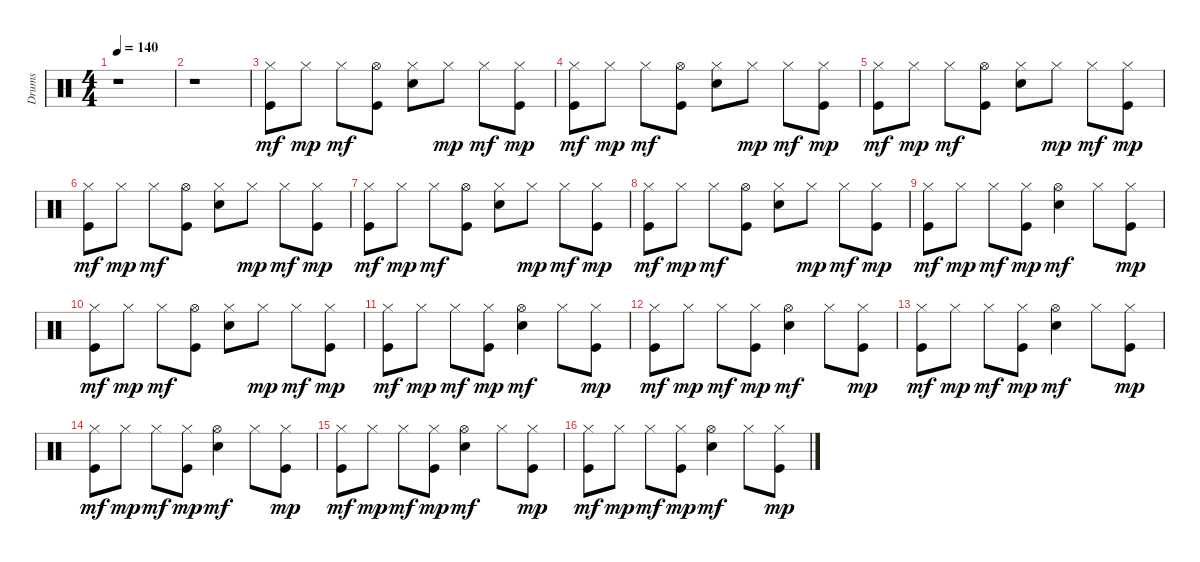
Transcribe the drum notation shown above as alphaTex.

\track ("Drums" "Drums") {instrument percussion}
\staff {score}
\articulation defaults
\ts (4 4)
\tempo 140
\clef neutral
\ks c
r.1{dy mf} |
r.1 |
("Hi-Hat (closed)" "Kick (hit)").8 "Hi-Hat (closed)".8{dy mp} "Hi-Hat (closed)".8{dy mf} ("Hi-Hat (open)" "Kick (hit)").8 ("Hi-Hat (closed)" "Electric Snare (hit)").8 "Hi-Hat (closed)".8{dy mp} "Hi-Hat (closed)".8{dy mf} ("Hi-Hat (closed)" "Kick (hit)").8{dy mp} |
("Kick (hit)" "Hi-Hat (closed)").8{dy mf} "Hi-Hat (closed)".8{dy mp} "Hi-Hat (closed)".8{dy mf} ("Kick (hit)" "Hi-Hat (open)").8 ("Electric Snare (hit)" "Hi-Hat (closed)").8 "Hi-Hat (closed)".8{dy mp} "Hi-Hat (closed)".8{dy mf} ("Kick (hit)" "Hi-Hat (closed)").8{dy mp} |
("Kick (hit)" "Hi-Hat (closed)").8{dy mf} "Hi-Hat (closed)".8{dy mp} "Hi-Hat (closed)".8{dy mf} ("Kick (hit)" "Hi-Hat (open)").8 ("Electric Snare (hit)" "Hi-Hat (closed)").8 "Hi-Hat (closed)".8{dy mp} "Hi-Hat (closed)".8{dy mf} ("Kick (hit)" "Hi-Hat (closed)").8{dy mp} |
("Kick (hit)" "Hi-Hat (closed)").8{dy mf} "Hi-Hat (closed)".8{dy mp} "Hi-Hat (closed)".8{dy mf} ("Kick (hit)" "Hi-Hat (open)").8 ("Electric Snare (hit)" "Hi-Hat (closed)").8 "Hi-Hat (closed)".8{dy mp} "Hi-Hat (closed)".8{dy mf} ("Kick (hit)" "Hi-Hat (closed)").8{dy mp} |
("Kick (hit)" "Hi-Hat (closed)").8{dy mf} "Hi-Hat (closed)".8{dy mp} "Hi-Hat (closed)".8{dy mf} ("Kick (hit)" "Hi-Hat (open)").8 ("Electric Snare (hit)" "Hi-Hat (closed)").8 "Hi-Hat (closed)".8{dy mp} "Hi-Hat (closed)".8{dy mf} ("Kick (hit)" "Hi-Hat (closed)").8{dy mp} |
("Kick (hit)" "Hi-Hat (closed)").8{dy mf} "Hi-Hat (closed)".8{dy mp} "Hi-Hat (closed)".8{dy mf} ("Kick (hit)" "Hi-Hat (open)").8 ("Electric Snare (hit)" "Hi-Hat (closed)").8 "Hi-Hat (closed)".8{dy mp} "Hi-Hat (closed)".8{dy mf} ("Kick (hit)" "Hi-Hat (closed)").8{dy mp} |
("Kick (hit)" "Hi-Hat (closed)").8{dy mf} "Hi-Hat (closed)".8{dy mp} "Hi-Hat (closed)".8{dy mf} ("Kick (hit)" "Hi-Hat (closed)").8{dy mp} ("Electric Snare (hit)" "Hi-Hat (open)").4{dy mf} "Hi-Hat (closed)".8 ("Kick (hit)" "Hi-Hat (closed)").8{dy mp} |
("Kick (hit)" "Hi-Hat (closed)").8{dy mf} "Hi-Hat (closed)".8{dy mp} "Hi-Hat (closed)".8{dy mf} ("Kick (hit)" "Hi-Hat (open)").8 ("Electric Snare (hit)" "Hi-Hat (closed)").8 "Hi-Hat (closed)".8{dy mp} "Hi-Hat (closed)".8{dy mf} ("Kick (hit)" "Hi-Hat (closed)").8{dy mp} |
("Hi-Hat (closed)" "Kick (hit)").8{dy mf} "Hi-Hat (closed)".8{dy mp} "Hi-Hat (closed)".8{dy mf} ("Hi-Hat (closed)" "Kick (hit)").8{dy mp} ("Hi-Hat (open)" "Electric Snare (hit)").4{dy mf} "Hi-Hat (closed)".8 ("Hi-Hat (closed)" "Kick (hit)").8{dy mp} |
("Hi-Hat (closed)" "Kick (hit)").8{dy mf} "Hi-Hat (closed)".8{dy mp} "Hi-Hat (closed)".8{dy mf} ("Hi-Hat (closed)" "Kick (hit)").8{dy mp} ("Hi-Hat (open)" "Electric Snare (hit)").4{dy mf} "Hi-Hat (closed)".8 ("Hi-Hat (closed)" "Kick (hit)").8{dy mp} |
("Hi-Hat (closed)" "Kick (hit)").8{dy mf} "Hi-Hat (closed)".8{dy mp} "Hi-Hat (closed)".8{dy mf} ("Hi-Hat (closed)" "Kick (hit)").8{dy mp} ("Hi-Hat (open)" "Electric Snare (hit)").4{dy mf} "Hi-Hat (closed)".8 ("Hi-Hat (closed)" "Kick (hit)").8{dy mp} |
("Hi-Hat (closed)" "Kick (hit)").8{dy mf} "Hi-Hat (closed)".8{dy mp} "Hi-Hat (closed)".8{dy mf} ("Hi-Hat (closed)" "Kick (hit)").8{dy mp} ("Hi-Hat (open)" "Electric Snare (hit)").4{dy mf} "Hi-Hat (closed)".8 ("Hi-Hat (closed)" "Kick (hit)").8{dy mp} |
("Hi-Hat (closed)" "Kick (hit)").8{dy mf} "Hi-Hat (closed)".8{dy mp} "Hi-Hat (closed)".8{dy mf} ("Hi-Hat (closed)" "Kick (hit)").8{dy mp} ("Hi-Hat (open)" "Electric Snare (hit)").4{dy mf} "Hi-Hat (closed)".8 ("Hi-Hat (closed)" "Kick (hit)").8{dy mp} |
("Hi-Hat (closed)" "Kick (hit)").8{dy mf} "Hi-Hat (closed)".8{dy mp} "Hi-Hat (closed)".8{dy mf} ("Hi-Hat (closed)" "Kick (hit)").8{dy mp} ("Hi-Hat (open)" "Electric Snare (hit)").4{dy mf} "Hi-Hat (closed)".8 ("Hi-Hat (closed)" "Kick (hit)").8{dy mp}
